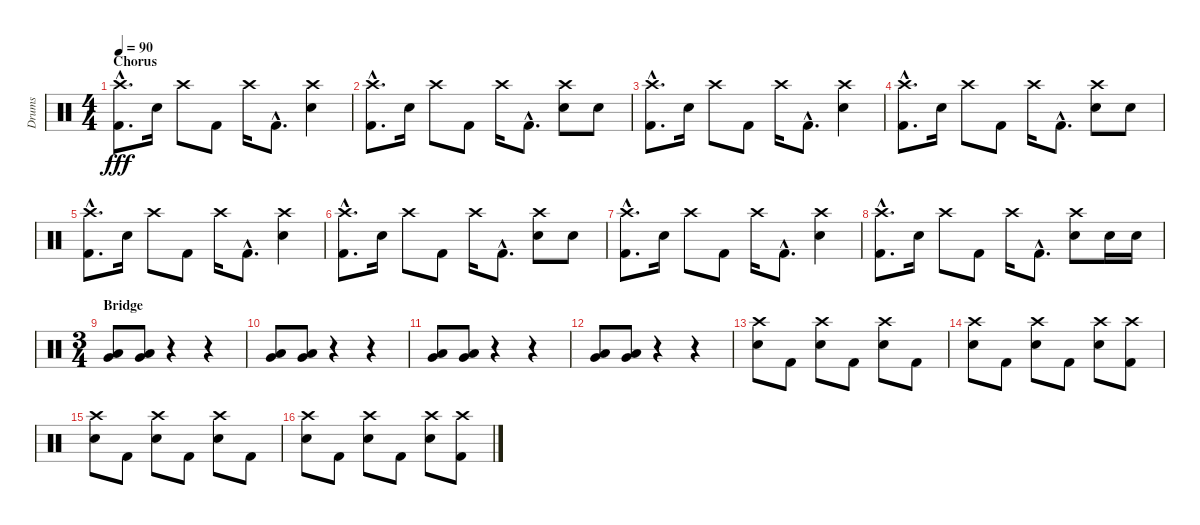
\track ("Drums" "Drums") {instrument percussion}
\staff {score}
\articulation defaults
\ts (4 4)
\section ("" "Chorus")
\tempo 90
\clef neutral
\ks c
("Crash high (hit)"{hac} "Kick (hit) 2"{hac}).8{d dy fff} "Electric Snare (hit)".16 "Crash high (hit)".8 "Kick (hit) 2".8 "Crash high (hit)".16 "Kick (hit) 2"{hac}.8{d} ("Crash high (hit)" "Electric Snare (hit)").4 |
("Crash high (hit)"{hac} "Kick (hit) 2"{hac}).8{d} "Electric Snare (hit)".16 "Crash high (hit)".8 "Kick (hit) 2".8 "Crash high (hit)".16 "Kick (hit) 2"{hac}.8{d} ("Crash high (hit)" "Electric Snare (hit)").8 "Electric Snare (hit)".8 |
("Crash high (hit)"{hac} "Kick (hit) 2"{hac}).8{d} "Electric Snare (hit)".16 "Crash high (hit)".8 "Kick (hit) 2".8 "Crash high (hit)".16 "Kick (hit) 2"{hac}.8{d} ("Crash high (hit)" "Electric Snare (hit)").4 |
("Crash high (hit)"{hac} "Kick (hit) 2"{hac}).8{d} "Electric Snare (hit)".16 "Crash high (hit)".8 "Kick (hit) 2".8 "Crash high (hit)".16 "Kick (hit) 2"{hac}.8{d} ("Crash high (hit)" "Electric Snare (hit)").8 "Electric Snare (hit)".8 |
("Crash high (hit)"{hac} "Kick (hit) 2"{hac}).8{d} "Electric Snare (hit)".16 "Crash high (hit)".8 "Kick (hit) 2".8 "Crash high (hit)".16 "Kick (hit) 2"{hac}.8{d} ("Crash high (hit)" "Electric Snare (hit)").4 |
("Crash high (hit)"{hac} "Kick (hit) 2"{hac}).8{d} "Electric Snare (hit)".16 "Crash high (hit)".8 "Kick (hit) 2".8 "Crash high (hit)".16 "Kick (hit) 2"{hac}.8{d} ("Crash high (hit)" "Electric Snare (hit)").8 "Electric Snare (hit)".8 |
("Crash high (hit)"{hac} "Kick (hit) 2"{hac}).8{d} "Electric Snare (hit)".16 "Crash high (hit)".8 "Kick (hit) 2".8 "Crash high (hit)".16 "Kick (hit) 2"{hac}.8{d} ("Crash high (hit)" "Electric Snare (hit)").4 |
("Crash high (hit)"{hac} "Kick (hit) 2"{hac}).8{d} "Electric Snare (hit)".16 "Crash high (hit)".8 "Kick (hit) 2".8 "Crash high (hit)".16 "Kick (hit) 2"{hac}.8{d} ("Crash high (hit)" "Electric Snare (hit)").8 "Electric Snare (hit)".16 "Electric Snare (hit)".16 |
\ts (3 4)
\section ("" "Bridge")
("Very Low Tom (hit)" "Low Floor Tom (hit)").8 ("Very Low Tom (hit)" "Low Floor Tom (hit)").8 r.4 r.4 |
("Very Low Tom (hit)" "Low Floor Tom (hit)").8 ("Very Low Tom (hit)" "Low Floor Tom (hit)").8 r.4 r.4 |
("Very Low Tom (hit)" "Low Floor Tom (hit)").8 ("Very Low Tom (hit)" "Low Floor Tom (hit)").8 r.4 r.4 |
("Very Low Tom (hit)" "Low Floor Tom (hit)").8 ("Very Low Tom (hit)" "Low Floor Tom (hit)").8 r.4 r.4 |
("Crash high (hit)" "Electric Snare (hit)").8 "Kick (hit) 2".8 ("Crash high (hit)" "Electric Snare (hit)").8 "Kick (hit) 2".8 ("Crash high (hit)" "Electric Snare (hit)").8 "Kick (hit) 2".8 |
("Crash high (hit)" "Electric Snare (hit)").8 "Kick (hit) 2".8 ("Crash high (hit)" "Electric Snare (hit)").8 "Kick (hit) 2".8 ("Crash high (hit)" "Electric Snare (hit)").8 ("Crash high (hit)" "Kick (hit) 2").8 |
("Crash high (hit)" "Electric Snare (hit)").8 "Kick (hit) 2".8 ("Crash high (hit)" "Electric Snare (hit)").8 "Kick (hit) 2".8 ("Crash high (hit)" "Electric Snare (hit)").8 "Kick (hit) 2".8 |
("Crash high (hit)" "Electric Snare (hit)").8 "Kick (hit) 2".8 ("Crash high (hit)" "Electric Snare (hit)").8 "Kick (hit) 2".8 ("Crash high (hit)" "Electric Snare (hit)").8 ("Crash high (hit)" "Kick (hit) 2").8
